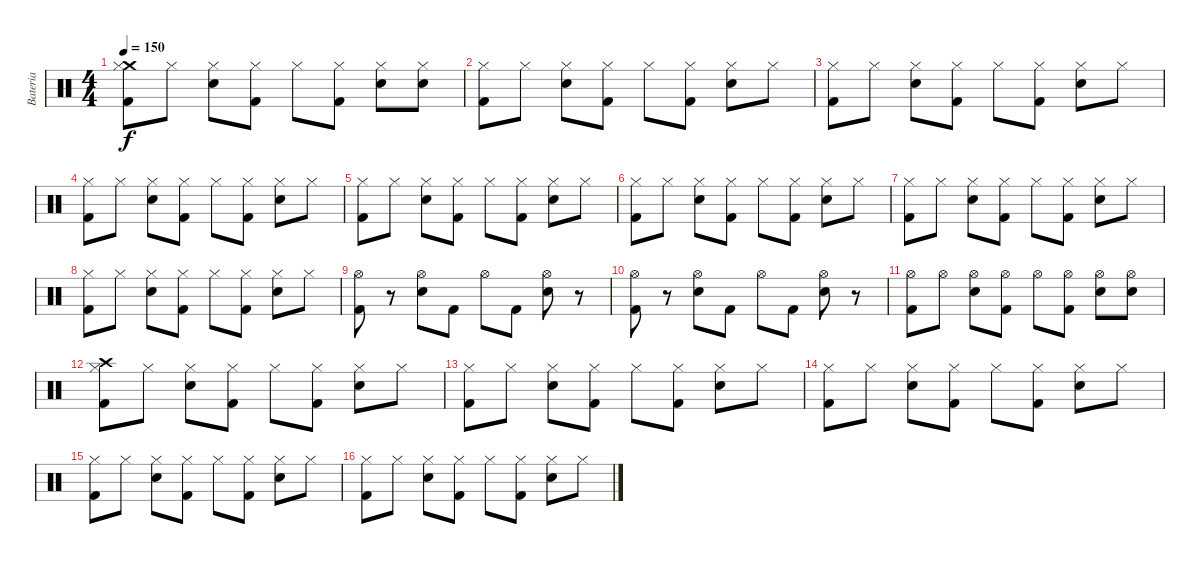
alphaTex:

\track ("Bateria" "Bateria") {instrument percussion}
\staff {score}
\articulation defaults
\ts (4 4)
\tempo 150
\clef neutral
\ks c
("Kick (hit) 2" "Crash medium (hit)" "Hi-Hat (closed)").8{dy f} "Hi-Hat (closed)".8 ("Electric Snare (hit)" "Hi-Hat (closed)").8 ("Kick (hit) 2" "Hi-Hat (closed)").8 "Hi-Hat (closed)".8 ("Kick (hit) 2" "Hi-Hat (closed)").8 ("Electric Snare (hit)" "Hi-Hat (closed)").8 ("Electric Snare (hit)" "Hi-Hat (closed)").8 |
("Kick (hit) 2" "Hi-Hat (closed)").8 "Hi-Hat (closed)".8 ("Electric Snare (hit)" "Hi-Hat (closed)").8 ("Kick (hit) 2" "Hi-Hat (closed)").8 "Hi-Hat (closed)".8 ("Kick (hit) 2" "Hi-Hat (closed)").8 ("Electric Snare (hit)" "Hi-Hat (closed)").8 "Hi-Hat (closed)".8 |
("Kick (hit) 2" "Hi-Hat (closed)").8 "Hi-Hat (closed)".8 ("Electric Snare (hit)" "Hi-Hat (closed)").8 ("Kick (hit) 2" "Hi-Hat (closed)").8 "Hi-Hat (closed)".8 ("Kick (hit) 2" "Hi-Hat (closed)").8 ("Electric Snare (hit)" "Hi-Hat (closed)").8 "Hi-Hat (closed)".8 |
("Kick (hit) 2" "Hi-Hat (closed)").8 "Hi-Hat (closed)".8 ("Electric Snare (hit)" "Hi-Hat (closed)").8 ("Kick (hit) 2" "Hi-Hat (closed)").8 "Hi-Hat (closed)".8 ("Kick (hit) 2" "Hi-Hat (closed)").8 ("Electric Snare (hit)" "Hi-Hat (closed)").8 "Hi-Hat (closed)".8 |
("Kick (hit) 2" "Hi-Hat (closed)").8 "Hi-Hat (closed)".8 ("Electric Snare (hit)" "Hi-Hat (closed)").8 ("Kick (hit) 2" "Hi-Hat (closed)").8 "Hi-Hat (closed)".8 ("Kick (hit) 2" "Hi-Hat (closed)").8 ("Electric Snare (hit)" "Hi-Hat (closed)").8 "Hi-Hat (closed)".8 |
("Kick (hit) 2" "Hi-Hat (closed)").8 "Hi-Hat (closed)".8 ("Electric Snare (hit)" "Hi-Hat (closed)").8 ("Kick (hit) 2" "Hi-Hat (closed)").8 "Hi-Hat (closed)".8 ("Kick (hit) 2" "Hi-Hat (closed)").8 ("Electric Snare (hit)" "Hi-Hat (closed)").8 "Hi-Hat (closed)".8 |
("Kick (hit) 2" "Hi-Hat (closed)").8 "Hi-Hat (closed)".8 ("Electric Snare (hit)" "Hi-Hat (closed)").8 ("Kick (hit) 2" "Hi-Hat (closed)").8 "Hi-Hat (closed)".8 ("Kick (hit) 2" "Hi-Hat (closed)").8 ("Electric Snare (hit)" "Hi-Hat (closed)").8 "Hi-Hat (closed)".8 |
("Kick (hit) 2" "Hi-Hat (closed)").8 "Hi-Hat (closed)".8 ("Electric Snare (hit)" "Hi-Hat (closed)").8 ("Kick (hit) 2" "Hi-Hat (closed)").8 "Hi-Hat (closed)".8 ("Kick (hit) 2" "Hi-Hat (closed)").8 ("Electric Snare (hit)" "Hi-Hat (closed)").8 "Hi-Hat (closed)".8 |
("Kick (hit) 2" "Hi-Hat (open)").8 r.8 ("Electric Snare (hit)" "Hi-Hat (open)").8 "Kick (hit) 2".8 "Hi-Hat (open)".8 "Kick (hit) 2".8 ("Electric Snare (hit)" "Hi-Hat (open)").8 r.8 |
("Kick (hit) 2" "Hi-Hat (open)").8 r.8 ("Electric Snare (hit)" "Hi-Hat (open)").8 "Kick (hit) 2".8 "Hi-Hat (open)".8 "Kick (hit) 2".8 ("Electric Snare (hit)" "Hi-Hat (open)").8 r.8 |
("Kick (hit) 2" "Hi-Hat (open)").8 "Hi-Hat (open)".8 ("Electric Snare (hit)" "Hi-Hat (open)").8 ("Kick (hit) 2" "Hi-Hat (open)").8 "Hi-Hat (open)".8 ("Kick (hit) 2" "Hi-Hat (open)").8 ("Electric Snare (hit)" "Hi-Hat (open)").8 ("Electric Snare (hit)" "Hi-Hat (open)").8 |
("Kick (hit) 2" "Crash high (hit)" "Hi-Hat (closed)").8 "Hi-Hat (closed)".8 ("Electric Snare (hit)" "Hi-Hat (closed)").8 ("Kick (hit) 2" "Hi-Hat (closed)").8 "Hi-Hat (closed)".8 ("Kick (hit) 2" "Hi-Hat (closed)").8 ("Electric Snare (hit)" "Hi-Hat (closed)").8 "Hi-Hat (closed)".8 |
("Kick (hit) 2" "Hi-Hat (closed)").8 "Hi-Hat (closed)".8 ("Electric Snare (hit)" "Hi-Hat (closed)").8 ("Kick (hit) 2" "Hi-Hat (closed)").8 "Hi-Hat (closed)".8 ("Kick (hit) 2" "Hi-Hat (closed)").8 ("Electric Snare (hit)" "Hi-Hat (closed)").8 "Hi-Hat (closed)".8 |
("Kick (hit) 2" "Hi-Hat (closed)").8 "Hi-Hat (closed)".8 ("Electric Snare (hit)" "Hi-Hat (closed)").8 ("Kick (hit) 2" "Hi-Hat (closed)").8 "Hi-Hat (closed)".8 ("Kick (hit) 2" "Hi-Hat (closed)").8 ("Electric Snare (hit)" "Hi-Hat (closed)").8 "Hi-Hat (closed)".8 |
("Kick (hit) 2" "Hi-Hat (closed)").8 "Hi-Hat (closed)".8 ("Electric Snare (hit)" "Hi-Hat (closed)").8 ("Kick (hit) 2" "Hi-Hat (closed)").8 "Hi-Hat (closed)".8 ("Kick (hit) 2" "Hi-Hat (closed)").8 ("Electric Snare (hit)" "Hi-Hat (closed)").8 "Hi-Hat (closed)".8 |
("Kick (hit) 2" "Hi-Hat (closed)").8 "Hi-Hat (closed)".8 ("Electric Snare (hit)" "Hi-Hat (closed)").8 ("Kick (hit) 2" "Hi-Hat (closed)").8 "Hi-Hat (closed)".8 ("Kick (hit) 2" "Hi-Hat (closed)").8 ("Electric Snare (hit)" "Hi-Hat (closed)").8 "Hi-Hat (closed)".8
